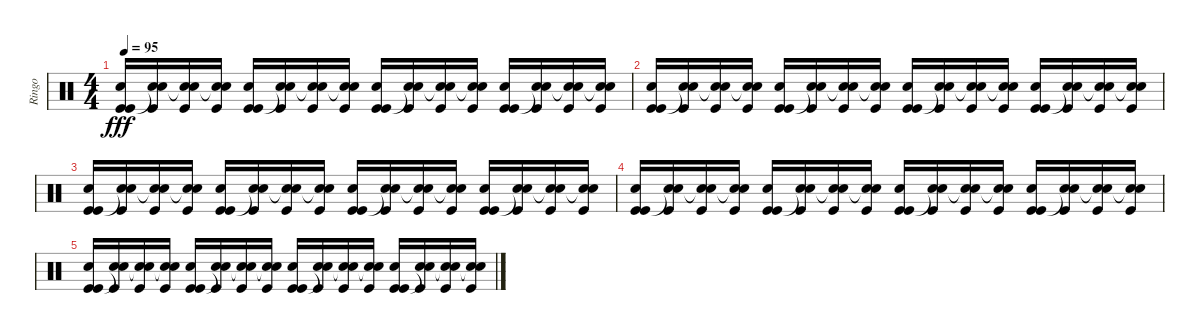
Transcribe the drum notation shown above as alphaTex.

\track ("Ringo" "Ringo") {instrument percussion}
\staff {score}
\articulation defaults
\ts (4 4)
\tempo 95
\clef neutral
\ks c
("Electric Snare (hit)" "Kick (hit)" "Kick (hit)").16{dy fff} ("Electric Snare (hit)" "Snare (hit)"{t} "Kick (hit)").16 ("Electric Snare (hit)" "Snare (hit)"{t} "Kick (hit)").16 ("Electric Snare (hit)" "Snare (hit)"{t} "Kick (hit)").16 ("Electric Snare (hit)" "Kick (hit)" "Kick (hit)").16 ("Electric Snare (hit)" "Snare (hit)"{t} "Kick (hit)").16 ("Electric Snare (hit)" "Snare (hit)"{t} "Kick (hit)").16 ("Electric Snare (hit)" "Snare (hit)"{t} "Kick (hit)").16 ("Electric Snare (hit)" "Kick (hit)" "Kick (hit)").16 ("Electric Snare (hit)" "Snare (hit)"{t} "Kick (hit)").16 ("Electric Snare (hit)" "Snare (hit)"{t} "Kick (hit)").16 ("Electric Snare (hit)" "Snare (hit)"{t} "Kick (hit)").16 ("Electric Snare (hit)" "Kick (hit)" "Kick (hit)").16 ("Electric Snare (hit)" "Snare (hit)"{t} "Kick (hit)").16 ("Electric Snare (hit)" "Snare (hit)"{t} "Kick (hit)").16 ("Electric Snare (hit)" "Snare (hit)"{t} "Kick (hit)").16 |
("Electric Snare (hit)" "Kick (hit)" "Kick (hit)").16 ("Electric Snare (hit)" "Snare (hit)"{t} "Kick (hit)").16 ("Electric Snare (hit)" "Snare (hit)"{t} "Kick (hit)").16 ("Electric Snare (hit)" "Snare (hit)"{t} "Kick (hit)").16 ("Electric Snare (hit)" "Kick (hit)" "Kick (hit)").16 ("Electric Snare (hit)" "Snare (hit)"{t} "Kick (hit)").16 ("Electric Snare (hit)" "Snare (hit)"{t} "Kick (hit)").16 ("Electric Snare (hit)" "Snare (hit)"{t} "Kick (hit)").16 ("Electric Snare (hit)" "Kick (hit)" "Kick (hit)").16 ("Electric Snare (hit)" "Snare (hit)"{t} "Kick (hit)").16 ("Electric Snare (hit)" "Snare (hit)"{t} "Kick (hit)").16 ("Electric Snare (hit)" "Snare (hit)"{t} "Kick (hit)").16 ("Electric Snare (hit)" "Kick (hit)" "Kick (hit)").16 ("Electric Snare (hit)" "Snare (hit)"{t} "Kick (hit)").16 ("Electric Snare (hit)" "Snare (hit)"{t} "Kick (hit)").16 ("Electric Snare (hit)" "Snare (hit)"{t} "Kick (hit)").16 |
("Electric Snare (hit)" "Kick (hit)" "Kick (hit)").16 ("Electric Snare (hit)" "Snare (hit)"{t} "Kick (hit)").16 ("Electric Snare (hit)" "Snare (hit)"{t} "Kick (hit)").16 ("Electric Snare (hit)" "Snare (hit)"{t} "Kick (hit)").16 ("Electric Snare (hit)" "Kick (hit)" "Kick (hit)").16 ("Electric Snare (hit)" "Snare (hit)"{t} "Kick (hit)").16 ("Electric Snare (hit)" "Snare (hit)"{t} "Kick (hit)").16 ("Electric Snare (hit)" "Snare (hit)"{t} "Kick (hit)").16 ("Electric Snare (hit)" "Kick (hit)" "Kick (hit)").16 ("Electric Snare (hit)" "Snare (hit)"{t} "Kick (hit)").16 ("Electric Snare (hit)" "Snare (hit)"{t} "Kick (hit)").16 ("Electric Snare (hit)" "Snare (hit)"{t} "Kick (hit)").16 ("Electric Snare (hit)" "Kick (hit)" "Kick (hit)").16 ("Electric Snare (hit)" "Snare (hit)"{t} "Kick (hit)").16 ("Electric Snare (hit)" "Snare (hit)"{t} "Kick (hit)").16 ("Electric Snare (hit)" "Snare (hit)"{t} "Kick (hit)").16 |
("Electric Snare (hit)" "Kick (hit)" "Kick (hit)").16 ("Electric Snare (hit)" "Snare (hit)"{t} "Kick (hit)").16 ("Electric Snare (hit)" "Snare (hit)"{t} "Kick (hit)").16 ("Electric Snare (hit)" "Snare (hit)"{t} "Kick (hit)").16 ("Electric Snare (hit)" "Kick (hit)" "Kick (hit)").16 ("Electric Snare (hit)" "Snare (hit)"{t} "Kick (hit)").16 ("Electric Snare (hit)" "Snare (hit)"{t} "Kick (hit)").16 ("Electric Snare (hit)" "Snare (hit)"{t} "Kick (hit)").16 ("Electric Snare (hit)" "Kick (hit)" "Kick (hit)").16 ("Electric Snare (hit)" "Snare (hit)"{t} "Kick (hit)").16 ("Electric Snare (hit)" "Snare (hit)"{t} "Kick (hit)").16 ("Electric Snare (hit)" "Snare (hit)"{t} "Kick (hit)").16 ("Electric Snare (hit)" "Kick (hit)" "Kick (hit)").16 ("Electric Snare (hit)" "Snare (hit)"{t} "Kick (hit)").16 ("Electric Snare (hit)" "Snare (hit)"{t} "Kick (hit)").16 ("Electric Snare (hit)" "Snare (hit)"{t} "Kick (hit)").16 |
("Electric Snare (hit)" "Kick (hit)" "Kick (hit)").16 ("Electric Snare (hit)" "Snare (hit)"{t} "Kick (hit)").16 ("Electric Snare (hit)" "Snare (hit)"{t} "Kick (hit)").16 ("Electric Snare (hit)" "Snare (hit)"{t} "Kick (hit)").16 ("Electric Snare (hit)" "Kick (hit)" "Kick (hit)").16 ("Electric Snare (hit)" "Snare (hit)"{t} "Kick (hit)").16 ("Electric Snare (hit)" "Snare (hit)"{t} "Kick (hit)").16 ("Electric Snare (hit)" "Snare (hit)"{t} "Kick (hit)").16 ("Electric Snare (hit)" "Kick (hit)" "Kick (hit)").16 ("Electric Snare (hit)" "Snare (hit)"{t} "Kick (hit)").16 ("Electric Snare (hit)" "Snare (hit)"{t} "Kick (hit)").16 ("Electric Snare (hit)" "Snare (hit)"{t} "Kick (hit)").16 ("Electric Snare (hit)" "Kick (hit)" "Kick (hit)").16 ("Electric Snare (hit)" "Snare (hit)"{t} "Kick (hit)").16 ("Electric Snare (hit)" "Snare (hit)"{t} "Kick (hit)").16 ("Electric Snare (hit)" "Snare (hit)"{t} "Kick (hit)").16
